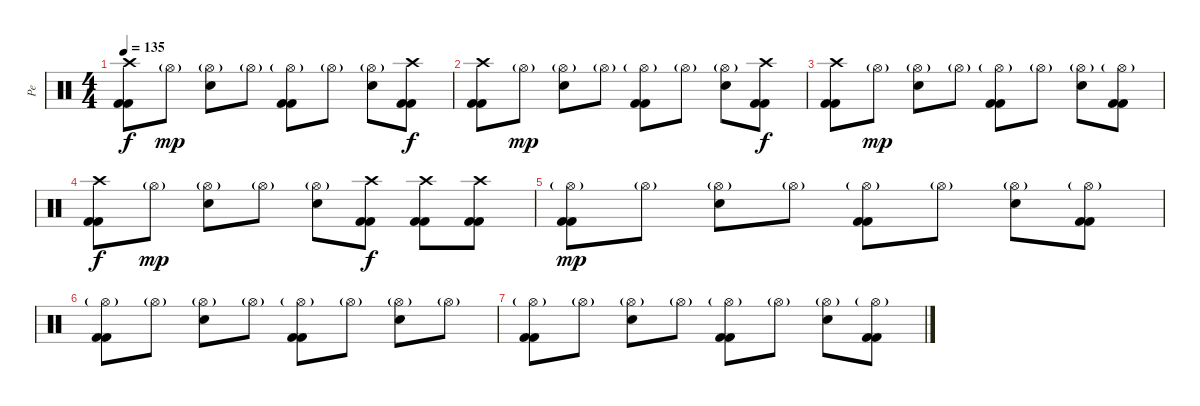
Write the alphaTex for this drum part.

\track ("Pe" "Pe") {instrument percussion}
\staff {score}
\articulation defaults
\ts (4 4)
\tempo 135
\clef neutral
\ks c
("Crash high (hit)" "Kick (hit) 2" "Kick (hit) 2").8{dy f} "Hi-Hat (open)"{g}.8{dy mp} ("Electric Snare (hit)" "Hi-Hat (open)"{g}).8 "Hi-Hat (open)"{g}.8 ("Hi-Hat (open)"{g} "Kick (hit) 2" "Kick (hit) 2").8 "Hi-Hat (open)"{g}.8 ("Electric Snare (hit)" "Hi-Hat (open)"{g}).8 ("Crash high (hit)" "Kick (hit) 2" "Kick (hit) 2").8{dy f} |
("Crash high (hit)" "Kick (hit) 2" "Kick (hit) 2").8 "Hi-Hat (open)"{g}.8{dy mp} ("Electric Snare (hit)" "Hi-Hat (open)"{g}).8 "Hi-Hat (open)"{g}.8 ("Hi-Hat (open)"{g} "Kick (hit) 2" "Kick (hit) 2").8 "Hi-Hat (open)"{g}.8 ("Electric Snare (hit)" "Hi-Hat (open)"{g}).8 ("Crash high (hit)" "Kick (hit) 2" "Kick (hit) 2").8{dy f} |
("Crash high (hit)" "Kick (hit) 2" "Kick (hit) 2").8 "Hi-Hat (open)"{g}.8{dy mp} ("Electric Snare (hit)" "Hi-Hat (open)"{g}).8 "Hi-Hat (open)"{g}.8 ("Hi-Hat (open)"{g} "Kick (hit) 2" "Kick (hit) 2").8 "Hi-Hat (open)"{g}.8 ("Electric Snare (hit)" "Hi-Hat (open)"{g}).8 ("Kick (hit) 2" "Kick (hit) 2" "Hi-Hat (open)"{g}).8 |
("Crash high (hit)" "Kick (hit) 2" "Kick (hit) 2").8{dy f} "Hi-Hat (open)"{g}.8{dy mp} ("Electric Snare (hit)" "Hi-Hat (open)"{g}).8 "Hi-Hat (open)"{g}.8 ("Hi-Hat (open)"{g} "Electric Snare (hit)").8 ("Kick (hit) 2" "Kick (hit) 2" "Crash high (hit)").8{dy f} ("Crash high (hit)" "Kick (hit) 2" "Kick (hit) 2").8 ("Crash high (hit)" "Kick (hit) 2" "Kick (hit) 2").8 |
("Hi-Hat (open)"{g} "Kick (hit) 2" "Kick (hit) 2").8{dy mp} "Hi-Hat (open)"{g}.8 ("Electric Snare (hit)" "Hi-Hat (open)"{g}).8 "Hi-Hat (open)"{g}.8 ("Hi-Hat (open)"{g} "Kick (hit) 2" "Kick (hit) 2").8 "Hi-Hat (open)"{g}.8 ("Electric Snare (hit)" "Hi-Hat (open)"{g}).8 ("Kick (hit) 2" "Kick (hit) 2" "Hi-Hat (open)"{g}).8 |
("Kick (hit) 2" "Kick (hit) 2" "Hi-Hat (open)"{g}).8 "Hi-Hat (open)"{g}.8 ("Hi-Hat (open)"{g} "Electric Snare (hit)").8 "Hi-Hat (open)"{g}.8 ("Hi-Hat (open)"{g} "Kick (hit) 2" "Kick (hit) 2").8 "Hi-Hat (open)"{g}.8 ("Electric Snare (hit)" "Hi-Hat (open)"{g}).8 "Hi-Hat (open)"{g}.8 |
("Hi-Hat (open)"{g} "Kick (hit) 2" "Kick (hit) 2").8 "Hi-Hat (open)"{g}.8 ("Electric Snare (hit)" "Hi-Hat (open)"{g}).8 "Hi-Hat (open)"{g}.8 ("Hi-Hat (open)"{g} "Kick (hit) 2" "Kick (hit) 2").8 "Hi-Hat (open)"{g}.8 ("Electric Snare (hit)" "Hi-Hat (open)"{g}).8 ("Kick (hit) 2" "Kick (hit) 2" "Hi-Hat (open)"{g}).8
